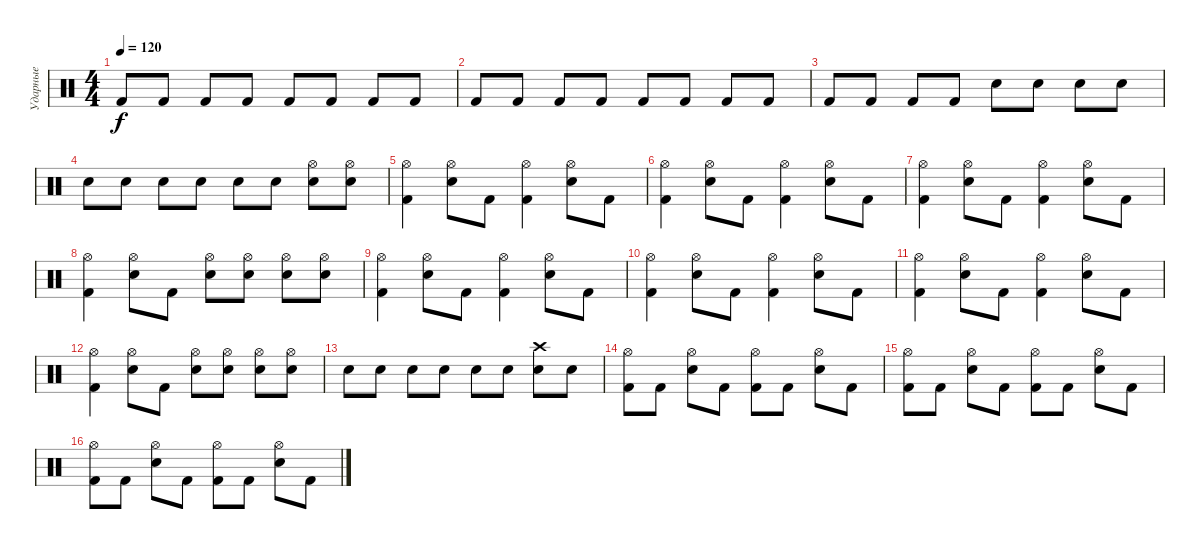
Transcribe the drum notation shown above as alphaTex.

\track ("Ударные" "Ударные") {instrument percussion}
\staff {score}
\articulation defaults
\ts (4 4)
\tempo 120
\clef neutral
\ks c "Kick (hit) 2".8{dy f} "Kick (hit) 2".8 "Kick (hit) 2".8 "Kick (hit) 2".8 "Kick (hit) 2".8 "Kick (hit) 2".8 "Kick (hit) 2".8 "Kick (hit) 2".8
|
"Kick (hit) 2".8 "Kick (hit) 2".8 "Kick (hit) 2".8 "Kick (hit) 2".8 "Kick (hit) 2".8 "Kick (hit) 2".8 "Kick (hit) 2".8 "Kick (hit) 2".8 |
"Kick (hit) 2".8 "Kick (hit) 2".8 "Kick (hit) 2".8 "Kick (hit) 2".8 "Snare (hit) 2".8 "Snare (hit) 2".8 "Snare (hit) 2".8 "Snare (hit) 2".8 |
"Snare (hit) 2".8 "Snare (hit) 2".8 "Snare (hit) 2".8 "Snare (hit) 2".8 "Snare (hit) 2".8 "Snare (hit) 2".8 ("Hi-Hat (open)" "Snare (hit) 2").8 ("Hi-Hat (open)" "Snare (hit) 2").8 |
("Hi-Hat (open)" "Kick (hit) 2").4 ("Hi-Hat (open)" "Snare (hit) 2").8 "Kick (hit) 2".8 ("Hi-Hat (open)" "Kick (hit) 2").4 ("Hi-Hat (open)" "Snare (hit) 2").8 "Kick (hit) 2".8 |
("Hi-Hat (open)" "Kick (hit) 2").4 ("Hi-Hat (open)" "Snare (hit) 2").8 "Kick (hit) 2".8 ("Hi-Hat (open)" "Kick (hit) 2").4 ("Hi-Hat (open)" "Snare (hit) 2").8 "Kick (hit) 2".8 |
("Hi-Hat (open)" "Kick (hit) 2").4 ("Hi-Hat (open)" "Snare (hit) 2").8 "Kick (hit) 2".8 ("Hi-Hat (open)" "Kick (hit) 2").4 ("Hi-Hat (open)" "Snare (hit) 2").8 "Kick (hit) 2".8 |
("Hi-Hat (open)" "Kick (hit) 2").4 ("Hi-Hat (open)" "Snare (hit) 2").8 "Kick (hit) 2".8 ("Hi-Hat (open)" "Snare (hit) 2").8 ("Hi-Hat (open)" "Snare (hit) 2").8 ("Hi-Hat (open)" "Snare (hit) 2").8 ("Hi-Hat (open)" "Snare (hit) 2").8 |
("Hi-Hat (open)" "Kick (hit) 2").4 ("Hi-Hat (open)" "Snare (hit) 2").8 "Kick (hit) 2".8 ("Hi-Hat (open)" "Kick (hit) 2").4 ("Hi-Hat (open)" "Snare (hit) 2").8 "Kick (hit) 2".8 |
("Hi-Hat (open)" "Kick (hit) 2").4 ("Hi-Hat (open)" "Snare (hit) 2").8 "Kick (hit) 2".8 ("Hi-Hat (open)" "Kick (hit) 2").4 ("Hi-Hat (open)" "Snare (hit) 2").8 "Kick (hit) 2".8 |
("Hi-Hat (open)" "Kick (hit) 2").4 ("Hi-Hat (open)" "Snare (hit) 2").8 "Kick (hit) 2".8 ("Hi-Hat (open)" "Kick (hit) 2").4 ("Hi-Hat (open)" "Snare (hit) 2").8 "Kick (hit) 2".8 |
("Hi-Hat (open)" "Kick (hit) 2").4 ("Hi-Hat (open)" "Snare (hit) 2").8 "Kick (hit) 2".8 ("Hi-Hat (open)" "Snare (hit) 2").8 ("Hi-Hat (open)" "Snare (hit) 2").8 ("Hi-Hat (open)" "Snare (hit) 2").8 ("Hi-Hat (open)" "Snare (hit) 2").8 |
"Snare (hit) 2".8 "Snare (hit) 2".8 "Snare (hit) 2".8 "Snare (hit) 2".8 "Snare (hit) 2".8 "Snare (hit) 2".8 ("Crash high (hit)" "Snare (hit) 2").8 "Snare (hit) 2".8 |
("Hi-Hat (open)" "Kick (hit) 2").8 "Kick (hit) 2".8 ("Hi-Hat (open)" "Snare (hit) 2").8 "Kick (hit) 2".8 ("Hi-Hat (open)" "Kick (hit) 2").8 "Kick (hit) 2".8 ("Hi-Hat (open)" "Snare (hit) 2").8 "Kick (hit) 2".8 |
("Hi-Hat (open)" "Kick (hit) 2").8 "Kick (hit) 2".8 ("Hi-Hat (open)" "Snare (hit) 2").8 "Kick (hit) 2".8 ("Hi-Hat (open)" "Kick (hit) 2").8 "Kick (hit) 2".8 ("Hi-Hat (open)" "Snare (hit) 2").8 "Kick (hit) 2".8 |
("Hi-Hat (open)" "Kick (hit) 2").8 "Kick (hit) 2".8 ("Hi-Hat (open)" "Snare (hit) 2").8 "Kick (hit) 2".8 ("Hi-Hat (open)" "Kick (hit) 2").8 "Kick (hit) 2".8 ("Hi-Hat (open)" "Snare (hit) 2").8 "Kick (hit) 2".8
